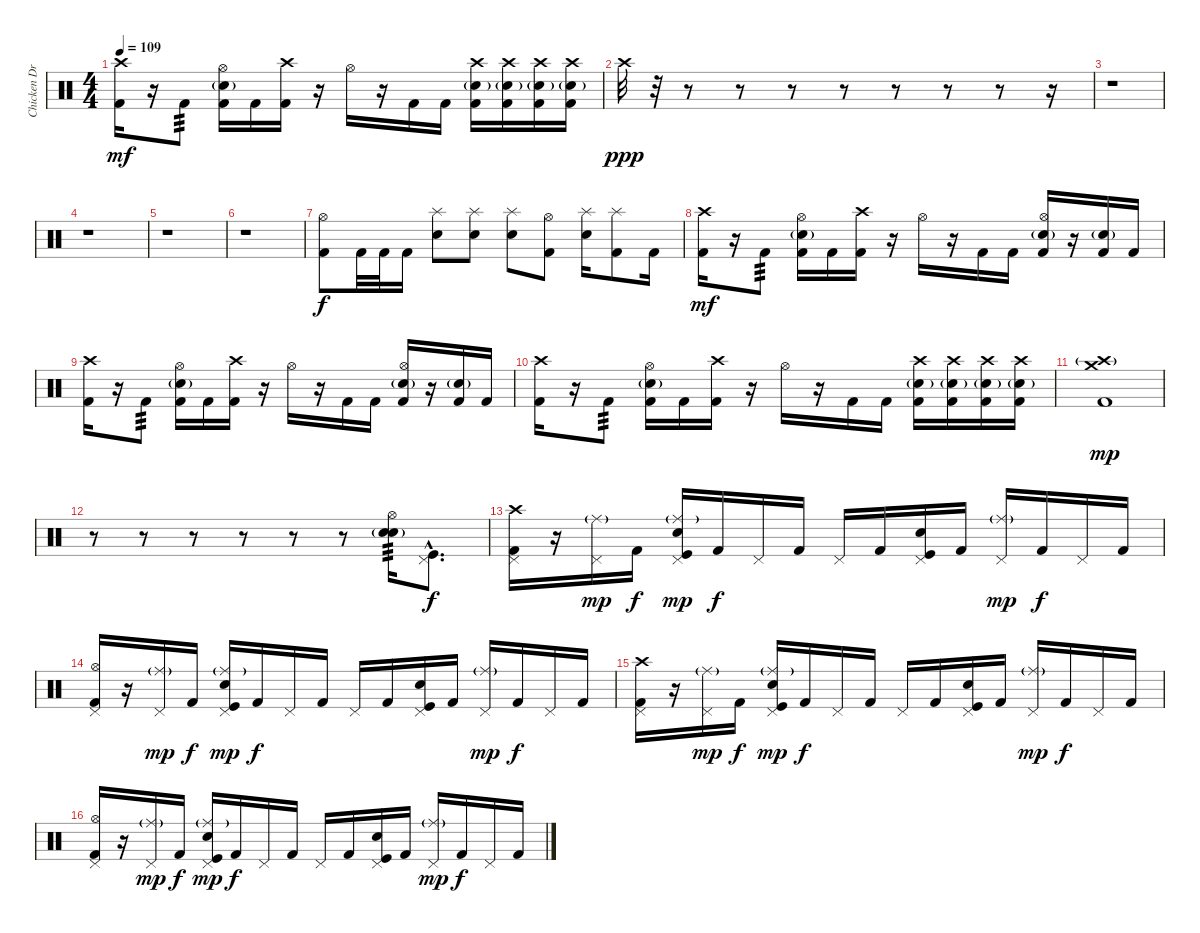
\track ("Chicken Drum" "Chicken Dr") {instrument percussion}
\staff {score}
\articulation defaults
\ts (4 4)
\tempo 109
\clef neutral
\ks c
("Crash high (hit)" "Kick (hit) 2").16{dy mf} r.16 "Kick (hit) 2".8{tp 3} ("Hi-Hat (open)" "Snare (hit) 2"{g} "Kick (hit) 2").16 "Kick (hit) 2".16 ("Crash high (hit)" "Kick (hit) 2").16 r.16 "Hi-Hat (open)".16 r.16 "Kick (hit) 2".16 "Kick (hit) 2".16 ("Crash high (hit)" "Snare (hit) 2"{g} "Kick (hit) 2").16 ("Crash high (hit)" "Snare (hit) 2"{g} "Kick (hit) 2").16 ("Crash high (hit)" "Snare (hit) 2"{g} "Kick (hit) 2").16 ("Crash high (hit)" "Snare (hit) 2"{g} "Kick (hit) 2").16 |
"Crash high (hit)".32{dy ppp} r.32 r.8 r.8 r.8 r.8 r.8 r.8 r.8 r.16 |
r.1 |
r.1 |
r.1 |
r.1 |
("Hi-Hat (open)" "Kick (hit) 2").8{dy f} "Kick (hit) 2".32 "Kick (hit) 2".32 "Kick (hit) 2".16 ("Splash (hit)" "Electric Snare (hit)").8 ("Splash (hit)" "Electric Snare (hit)").8 ("Splash (hit)" "Electric Snare (hit)").8 ("Hi-Hat (open)" "Kick (hit) 2").8 ("Splash (hit)" "Electric Snare (hit)").16 ("Splash (hit)" "Kick (hit) 2").8 "Kick (hit) 2".16 |
("Crash high (hit)" "Kick (hit) 2").16{dy mf} r.16 "Kick (hit) 2".8{tp 3} ("Hi-Hat (open)" "Snare (hit) 2"{g} "Kick (hit) 2").16 "Kick (hit) 2".16 ("Crash high (hit)" "Kick (hit) 2").16 r.16 "Hi-Hat (open)".16 r.16 "Kick (hit) 2".16 "Kick (hit) 2".16 ("Hi-Hat (open)" "Snare (hit) 2"{g} "Kick (hit) 2").16 r.16 ("Snare (hit) 2"{g} "Kick (hit) 2").16 "Kick (hit) 2".16 |
("Crash high (hit)" "Kick (hit) 2").16 r.16 "Kick (hit) 2".8{tp 3} ("Hi-Hat (open)" "Snare (hit) 2"{g} "Kick (hit) 2").16 "Kick (hit) 2".16 ("Crash high (hit)" "Kick (hit) 2").16 r.16 "Hi-Hat (open)".16 r.16 "Kick (hit) 2".16 "Kick (hit) 2".16 ("Hi-Hat (open)" "Snare (hit) 2"{g} "Kick (hit) 2").16 r.16 ("Snare (hit) 2"{g} "Kick (hit) 2").16 "Kick (hit) 2".16 |
("Crash high (hit)" "Kick (hit) 2").16 r.16 "Kick (hit) 2".8{tp 3} ("Hi-Hat (open)" "Snare (hit) 2"{g} "Kick (hit) 2").16 "Kick (hit) 2".16 ("Crash high (hit)" "Kick (hit) 2").16 r.16 "Hi-Hat (open)".16 r.16 "Kick (hit) 2".16 "Kick (hit) 2".16 ("Crash high (hit)" "Snare (hit) 2"{g} "Kick (hit) 2").16 ("Crash high (hit)" "Snare (hit) 2"{g} "Kick (hit) 2").16 ("Crash high (hit)" "Snare (hit) 2"{g} "Kick (hit) 2").16 ("Crash high (hit)" "Snare (hit) 2"{g} "Kick (hit) 2").16 |
("Crash medium (hit)" "Crash high (hit)"{g} "Kick (hit) 2").1{dy mp} |
r.8 r.8 r.8 r.8 r.8 r.8 ("Hi-Hat (open)" "Snare (hit) 2"{g} "Electric Snare (hit)").16{tp 3} ("Pedal Hi-Hat (hit)"{hac} "Kick (hit)"{hac}).8{d dy f} |
("Crash high (hit)" "Pedal Hi-Hat (hit)" "Kick (hit) 2").16 r.16 ("Ride (middle)"{g} "Pedal Hi-Hat (hit)").16{dy mp} "Kick (hit) 2".16{dy f} ("Ride (middle)"{g} "Pedal Hi-Hat (hit)" "Snare (hit) 2" "Kick (hit)").16{dy mp} "Kick (hit) 2".16{dy f} "Pedal Hi-Hat (hit)".16 "Kick (hit) 2".16 "Pedal Hi-Hat (hit)".16 "Kick (hit) 2".16 ("Pedal Hi-Hat (hit)" "Snare (hit) 2" "Kick (hit)").16 "Kick (hit) 2".16 ("Ride (middle)"{g} "Pedal Hi-Hat (hit)").16{dy mp} "Kick (hit) 2".16{dy f} "Pedal Hi-Hat (hit)".16 "Kick (hit) 2".16 |
("Hi-Hat (open)" "Pedal Hi-Hat (hit)" "Kick (hit) 2").16 r.16 ("Ride (middle)"{g} "Pedal Hi-Hat (hit)").16{dy mp} "Kick (hit) 2".16{dy f} ("Ride (middle)"{g} "Pedal Hi-Hat (hit)" "Snare (hit) 2" "Kick (hit)").16{dy mp} "Kick (hit) 2".16{dy f} "Pedal Hi-Hat (hit)".16 "Kick (hit) 2".16 "Pedal Hi-Hat (hit)".16 "Kick (hit) 2".16 ("Pedal Hi-Hat (hit)" "Snare (hit) 2" "Kick (hit)").16 "Kick (hit) 2".16 ("Ride (middle)"{g} "Pedal Hi-Hat (hit)").16{dy mp} "Kick (hit) 2".16{dy f} "Pedal Hi-Hat (hit)".16 "Kick (hit) 2".16 |
("Crash high (hit)" "Pedal Hi-Hat (hit)" "Kick (hit) 2").16 r.16 ("Ride (middle)"{g} "Pedal Hi-Hat (hit)").16{dy mp} "Kick (hit) 2".16{dy f} ("Ride (middle)"{g} "Pedal Hi-Hat (hit)" "Snare (hit) 2" "Kick (hit)").16{dy mp} "Kick (hit) 2".16{dy f} "Pedal Hi-Hat (hit)".16 "Kick (hit) 2".16 "Pedal Hi-Hat (hit)".16 "Kick (hit) 2".16 ("Pedal Hi-Hat (hit)" "Snare (hit) 2" "Kick (hit)").16 "Kick (hit) 2".16 ("Ride (middle)"{g} "Pedal Hi-Hat (hit)").16{dy mp} "Kick (hit) 2".16{dy f} "Pedal Hi-Hat (hit)".16 "Kick (hit) 2".16 |
("Hi-Hat (open)" "Pedal Hi-Hat (hit)" "Kick (hit) 2").16 r.16 ("Ride (middle)"{g} "Pedal Hi-Hat (hit)").16{dy mp} "Kick (hit) 2".16{dy f} ("Ride (middle)"{g} "Pedal Hi-Hat (hit)" "Snare (hit) 2" "Kick (hit)").16{dy mp} "Kick (hit) 2".16{dy f} "Pedal Hi-Hat (hit)".16 "Kick (hit) 2".16 "Pedal Hi-Hat (hit)".16 "Kick (hit) 2".16 ("Pedal Hi-Hat (hit)" "Snare (hit) 2" "Kick (hit)").16 "Kick (hit) 2".16 ("Ride (middle)"{g} "Pedal Hi-Hat (hit)").16{dy mp} "Kick (hit) 2".16{dy f} "Pedal Hi-Hat (hit)".16 "Kick (hit) 2".16
